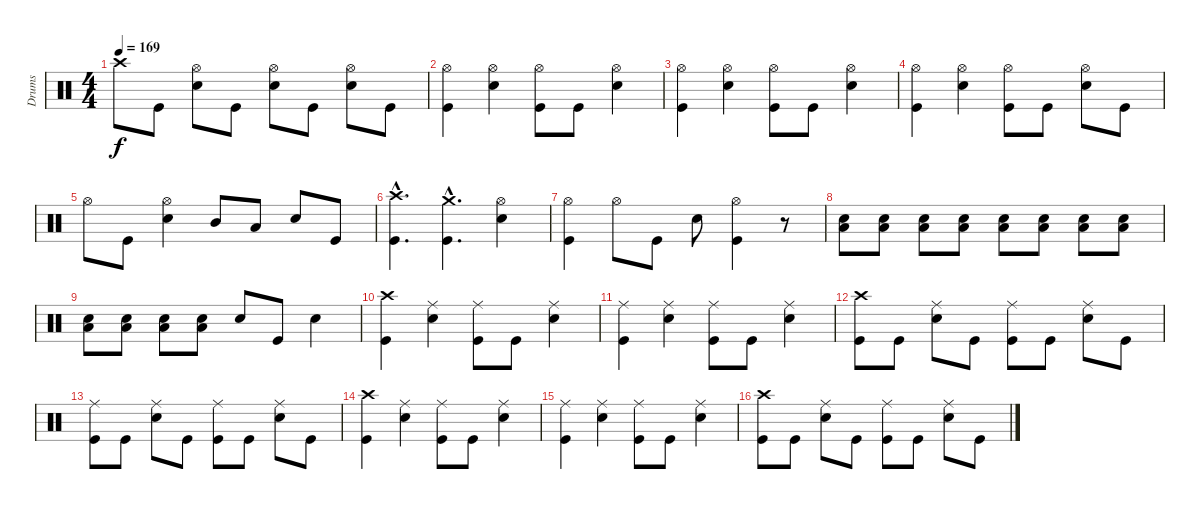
\track ("Drums" "Drums") {instrument percussion}
\staff {score}
\articulation defaults
\ts (4 4)
\tempo 169
\clef neutral
\ks c "Crash high (hit)"{t}.8{dy f} "Kick (hit)".8
("Hi-Hat (open)" "Snare (hit) 2").8 "Kick (hit)".8 ("Hi-Hat (open)" "Snare (hit) 2").8 "Kick (hit)".8 ("Hi-Hat (open)" "Snare (hit) 2").8 "Kick (hit)".8 |
("Hi-Hat (open)" "Kick (hit)").4 ("Hi-Hat (open)" "Snare (hit) 2").4 ("Hi-Hat (open)" "Kick (hit)").8 "Kick (hit)".8 ("Hi-Hat (open)" "Snare (hit) 2").4 |
("Hi-Hat (open)" "Kick (hit)").4 ("Hi-Hat (open)" "Snare (hit) 2").4 ("Hi-Hat (open)" "Kick (hit)").8 "Kick (hit)".8 ("Hi-Hat (open)" "Snare (hit) 2").4 |
("Hi-Hat (open)" "Kick (hit)").4 ("Hi-Hat (open)" "Snare (hit) 2").4 ("Hi-Hat (open)" "Kick (hit)").8 "Kick (hit)".8 ("Hi-Hat (open)" "Snare (hit) 2").8 "Kick (hit)".8 |
"Hi-Hat (open)".8 "Kick (hit)".8 ("Hi-Hat (open)" "Snare (hit) 2").4 "Mid Tom (hit)".8 "Low Tom (hit)".8 "Snare (hit) 2".8 "Kick (hit)".8 |
("Crash high (hit)"{hac} "Kick (hit)"{hac}).4{d} ("Crash medium (hit)"{hac} "Kick (hit)"{hac}).4{d} ("Hi-Hat (open)" "Snare (hit) 2").4 |
("Hi-Hat (open)" "Kick (hit)").4 "Hi-Hat (open)".8 "Kick (hit)".8 "Snare (hit) 2".8 ("Hi-Hat (open)" "Kick (hit)").4 r.8{volume 3} |
("Low Floor Tom (hit)" "Snare (hit) 2").8{volume 8} ("Low Floor Tom (hit)" "Snare (hit) 2").8 ("Low Floor Tom (hit)" "Snare (hit) 2").8 ("Low Floor Tom (hit)" "Snare (hit) 2").8 ("Low Floor Tom (hit)" "Snare (hit) 2").8 ("Low Floor Tom (hit)" "Snare (hit) 2").8 ("Low Floor Tom (hit)" "Snare (hit) 2").8 ("Low Floor Tom (hit)" "Snare (hit) 2").8 |
("Low Floor Tom (hit)" "Snare (hit) 2").8 ("Low Floor Tom (hit)" "Snare (hit) 2").8 ("Low Floor Tom (hit)" "Snare (hit) 2").8 ("Low Floor Tom (hit)" "Snare (hit) 2").8 "Snare (hit) 2".8 "Kick (hit)".8 "Snare (hit) 2".4 |
("Crash high (hit)" "Kick (hit)").4 ("Ride (middle)" "Snare (hit) 2").4 ("Ride (middle)" "Kick (hit)").8 "Kick (hit)".8 ("Ride (middle)" "Snare (hit) 2").4 |
("Ride (middle)" "Kick (hit)").4 ("Ride (middle)" "Snare (hit) 2").4 ("Ride (middle)" "Kick (hit)").8 "Kick (hit)".8 ("Ride (middle)" "Snare (hit) 2").4 |
("Crash high (hit)" "Kick (hit)").8 "Kick (hit)".8 ("Ride (middle)" "Snare (hit) 2").8 "Kick (hit)".8 ("Ride (middle)" "Kick (hit)").8 "Kick (hit)".8 ("Ride (middle)" "Snare (hit) 2").8 "Kick (hit)".8 |
("Ride (middle)" "Kick (hit)").8 "Kick (hit)".8 ("Ride (middle)" "Snare (hit) 2").8 "Kick (hit)".8 ("Ride (middle)" "Kick (hit)").8 "Kick (hit)".8 ("Ride (middle)" "Snare (hit) 2").8 "Kick (hit)".8 |
("Crash high (hit)" "Kick (hit)").4 ("Ride (middle)" "Snare (hit) 2").4 ("Ride (middle)" "Kick (hit)").8 "Kick (hit)".8 ("Ride (middle)" "Snare (hit) 2").4 |
("Ride (middle)" "Kick (hit)").4 ("Ride (middle)" "Snare (hit) 2").4 ("Ride (middle)" "Kick (hit)").8 "Kick (hit)".8 ("Ride (middle)" "Snare (hit) 2").4 |
("Crash high (hit)" "Kick (hit)").8 "Kick (hit)".8 ("Ride (middle)" "Snare (hit) 2").8 "Kick (hit)".8 ("Ride (middle)" "Kick (hit)").8 "Kick (hit)".8 ("Ride (middle)" "Snare (hit) 2").8 "Kick (hit)".8
